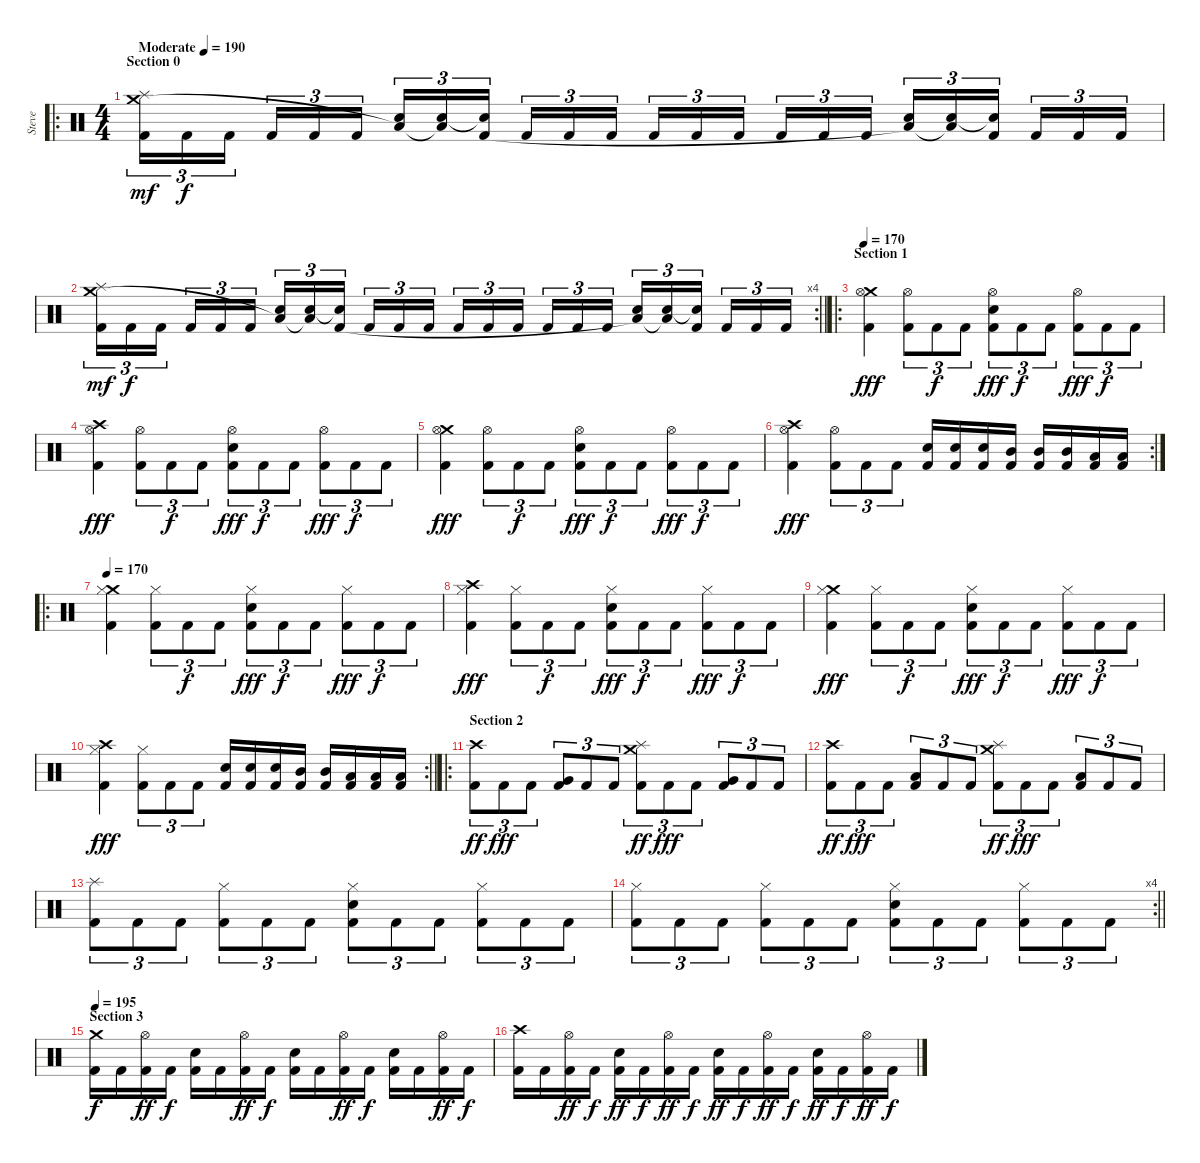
\track ("Steve" "Steve") {instrument percussion}
\staff {score}
\articulation defaults
\ro
\ts (4 4)
\section ("" "Section 0")
\tempo (190 "Moderate")
\tempo 120
\tempo (190 "Moderate")
\clef neutral
\ks c
("Splash (hit)" "Crash medium (hit)" "Kick (hit) 2").16{tu (3 2) dy mf} "Kick (hit) 2".16{tu (3 2) dy f} "Kick (hit) 2".16{tu (3 2) beam splitsecondary} "Kick (hit) 2".16{tu (3 2)} "Kick (hit) 2".16{tu (3 2)} "Kick (hit) 2".16{tu (3 2)} ("Snare (hit) 2" "Low Floor Tom (hit)"{t}).16{tu (3 2)} ("Snare (hit) 2" "Low Floor Tom (hit)"{t}).16{tu (3 2)} ("Snare (hit) 2"{t} "Kick (hit) 2").16{tu (3 2) beam splitsecondary} "Kick (hit) 2".16{tu (3 2)} "Kick (hit) 2".16{tu (3 2)} "Kick (hit) 2".16{tu (3 2)} "Kick (hit) 2".16{tu (3 2)} "Kick (hit) 2".16{tu (3 2)} "Kick (hit) 2".16{tu (3 2) beam splitsecondary} "Kick (hit) 2".16{tu (3 2)} "Kick (hit) 2".16{tu (3 2)} "Kick (hit) 2".16{tu (3 2)} ("Snare (hit) 2" "Low Floor Tom (hit)"{t}).16{tu (3 2)} ("Snare (hit) 2" "Low Floor Tom (hit)"{t}).16{tu (3 2)} ("Snare (hit) 2"{t} "Kick (hit) 2").16{tu (3 2) beam splitsecondary} "Kick (hit) 2".16{tu (3 2)} "Kick (hit) 2".16{tu (3 2)} "Kick (hit) 2".16{tu (3 2)} |
\rc 4
\barLineRight lightlight
("Splash (hit)" "Crash medium (hit)" "Kick (hit) 2").16{tu (3 2) dy mf} "Kick (hit) 2".16{tu (3 2) dy f} "Kick (hit) 2".16{tu (3 2) beam splitsecondary} "Kick (hit) 2".16{tu (3 2)} "Kick (hit) 2".16{tu (3 2)} "Kick (hit) 2".16{tu (3 2)} ("Snare (hit) 2" "Low Floor Tom (hit)"{t}).16{tu (3 2)} ("Snare (hit) 2" "Low Floor Tom (hit)"{t}).16{tu (3 2)} ("Snare (hit) 2"{t} "Kick (hit) 2").16{tu (3 2) beam splitsecondary} "Kick (hit) 2".16{tu (3 2)} "Kick (hit) 2".16{tu (3 2)} "Kick (hit) 2".16{tu (3 2)} "Kick (hit) 2".16{tu (3 2)} "Kick (hit) 2".16{tu (3 2)} "Kick (hit) 2".16{tu (3 2) beam splitsecondary} "Kick (hit) 2".16{tu (3 2)} "Kick (hit) 2".16{tu (3 2)} "Kick (hit) 2".16{tu (3 2)} ("Snare (hit) 2" "Low Floor Tom (hit)"{t}).16{tu (3 2)} ("Snare (hit) 2" "Low Floor Tom (hit)"{t}).16{tu (3 2)} ("Snare (hit) 2"{t} "Kick (hit) 2").16{tu (3 2) beam splitsecondary} "Kick (hit) 2".16{tu (3 2)} "Kick (hit) 2".16{tu (3 2)} "Kick (hit) 2".16{tu (3 2)} |
\ro
\section ("" "Section 1")
\tempo 170
("Crash medium (hit)" "Hi-Hat (open)" "Kick (hit) 2").4{dy fff} ("Hi-Hat (open)" "Kick (hit) 2").8{tu (3 2)} "Kick (hit) 2".8{tu (3 2) dy f} "Kick (hit) 2".8{tu (3 2)} ("Snare (hit) 2" "Hi-Hat (open)" "Kick (hit) 2").8{tu (3 2) dy fff} "Kick (hit) 2".8{tu (3 2) dy f} "Kick (hit) 2".8{tu (3 2)} ("Hi-Hat (open)" "Kick (hit) 2").8{tu (3 2) dy fff} "Kick (hit) 2".8{tu (3 2) dy f} "Kick (hit) 2".8{tu (3 2)} |
("Crash high (hit)" "Hi-Hat (open)" "Kick (hit) 2").4{dy fff} ("Hi-Hat (open)" "Kick (hit) 2").8{tu (3 2)} "Kick (hit) 2".8{tu (3 2) dy f} "Kick (hit) 2".8{tu (3 2)} ("Snare (hit) 2" "Hi-Hat (open)" "Kick (hit) 2").8{tu (3 2) dy fff} "Kick (hit) 2".8{tu (3 2) dy f} "Kick (hit) 2".8{tu (3 2)} ("Hi-Hat (open)" "Kick (hit) 2").8{tu (3 2) dy fff} "Kick (hit) 2".8{tu (3 2) dy f} "Kick (hit) 2".8{tu (3 2)} |
("Crash medium (hit)" "Hi-Hat (open)" "Kick (hit) 2").4{dy fff} ("Hi-Hat (open)" "Kick (hit) 2").8{tu (3 2)} "Kick (hit) 2".8{tu (3 2) dy f} "Kick (hit) 2".8{tu (3 2)} ("Snare (hit) 2" "Hi-Hat (open)" "Kick (hit) 2").8{tu (3 2) dy fff} "Kick (hit) 2".8{tu (3 2) dy f} "Kick (hit) 2".8{tu (3 2)} ("Hi-Hat (open)" "Kick (hit) 2").8{tu (3 2) dy fff} "Kick (hit) 2".8{tu (3 2) dy f} "Kick (hit) 2".8{tu (3 2)} |
\rc 2
("Crash high (hit)" "Hi-Hat (open)" "Kick (hit) 2").4{dy fff} ("Hi-Hat (open)" "Kick (hit) 2").8{tu (3 2)} "Kick (hit) 2".8{tu (3 2)} "Kick (hit) 2".8{tu (3 2)} ("Snare (hit) 2" "Kick (hit) 2").16 ("Snare (hit) 2" "Kick (hit) 2").16 ("Snare (hit) 2" "Kick (hit) 2").16 ("Mid Tom (hit)" "Kick (hit) 2").16 ("Mid Tom (hit)" "Kick (hit) 2").16 ("Mid Tom (hit)" "Kick (hit) 2").16 ("Low Tom (hit)" "Kick (hit) 2").16 ("Low Tom (hit)" "Kick (hit) 2").16 |
\ro
\tempo 170
("Crash medium (hit)" "Hi-Hat (closed)" "Kick (hit) 2").4 ("Hi-Hat (closed)" "Kick (hit) 2").8{tu (3 2)} "Kick (hit) 2".8{tu (3 2) dy f} "Kick (hit) 2".8{tu (3 2)} ("Snare (hit) 2" "Hi-Hat (closed)" "Kick (hit) 2").8{tu (3 2) dy fff} "Kick (hit) 2".8{tu (3 2) dy f} "Kick (hit) 2".8{tu (3 2)} ("Hi-Hat (closed)" "Kick (hit) 2").8{tu (3 2) dy fff} "Kick (hit) 2".8{tu (3 2) dy f} "Kick (hit) 2".8{tu (3 2)} |
("Crash high (hit)" "Hi-Hat (closed)" "Kick (hit) 2").4{dy fff} ("Hi-Hat (closed)" "Kick (hit) 2").8{tu (3 2)} "Kick (hit) 2".8{tu (3 2) dy f} "Kick (hit) 2".8{tu (3 2)} ("Snare (hit) 2" "Hi-Hat (closed)" "Kick (hit) 2").8{tu (3 2) dy fff} "Kick (hit) 2".8{tu (3 2) dy f} "Kick (hit) 2".8{tu (3 2)} ("Hi-Hat (closed)" "Kick (hit) 2").8{tu (3 2) dy fff} "Kick (hit) 2".8{tu (3 2) dy f} "Kick (hit) 2".8{tu (3 2)} |
("Crash medium (hit)" "Hi-Hat (closed)" "Kick (hit) 2").4{dy fff} ("Hi-Hat (closed)" "Kick (hit) 2").8{tu (3 2)} "Kick (hit) 2".8{tu (3 2) dy f} "Kick (hit) 2".8{tu (3 2)} ("Snare (hit) 2" "Hi-Hat (closed)" "Kick (hit) 2").8{tu (3 2) dy fff} "Kick (hit) 2".8{tu (3 2) dy f} "Kick (hit) 2".8{tu (3 2)} ("Hi-Hat (closed)" "Kick (hit) 2").8{tu (3 2) dy fff} "Kick (hit) 2".8{tu (3 2) dy f} "Kick (hit) 2".8{tu (3 2)} |
\rc 2
\barLineRight lightlight
("Crash high (hit)" "Hi-Hat (closed)" "Kick (hit) 2").4{dy fff} ("Hi-Hat (closed)" "Kick (hit) 2").8{tu (3 2)} "Kick (hit) 2".8{tu (3 2)} "Kick (hit) 2".8{tu (3 2)} ("Snare (hit) 2" "Kick (hit) 2").16 ("Snare (hit) 2" "Kick (hit) 2").16 ("Snare (hit) 2" "Kick (hit) 2").16 ("Mid Tom (hit)" "Kick (hit) 2").16 ("Mid Tom (hit)" "Kick (hit) 2").16 ("Low Tom (hit)" "Kick (hit) 2").16 ("Low Tom (hit)" "Kick (hit) 2").16 ("Low Tom (hit)" "Kick (hit) 2").16 |
\ro
\section ("" "Section 2")
("Crash high (hit)" "Kick (hit) 2").8{tu (3 2) dy ff} "Kick (hit) 2".8{tu (3 2) dy fff} "Kick (hit) 2".8{tu (3 2)} ("Very Low Tom (hit)" "Kick (hit) 2").8{tu (3 2)} "Kick (hit) 2".8{tu (3 2)} "Kick (hit) 2".8{tu (3 2)} ("Crash medium (hit)" "Splash (hit)" "Kick (hit) 2").8{tu (3 2) dy ff} "Kick (hit) 2".8{tu (3 2) dy fff} "Kick (hit) 2".8{tu (3 2)} ("Very Low Tom (hit)" "Kick (hit) 2").8{tu (3 2)} "Kick (hit) 2".8{tu (3 2)} "Kick (hit) 2".8{tu (3 2)} |
("Crash high (hit)" "Kick (hit) 2").8{tu (3 2) dy ff} "Kick (hit) 2".8{tu (3 2) dy fff} "Kick (hit) 2".8{tu (3 2)} ("Low Tom (hit)" "Kick (hit) 2").8{tu (3 2)} "Kick (hit) 2".8{tu (3 2)} "Kick (hit) 2".8{tu (3 2)} ("Crash medium (hit)" "Splash (hit)" "Kick (hit) 2").8{tu (3 2) dy ff} "Kick (hit) 2".8{tu (3 2) dy fff} "Kick (hit) 2".8{tu (3 2)} ("Low Tom (hit)" "Kick (hit) 2").8{tu (3 2)} "Kick (hit) 2".8{tu (3 2)} "Kick (hit) 2".8{tu (3 2)} |
("Splash (hit)" "Kick (hit) 2").8{tu (3 2)} "Kick (hit) 2".8{tu (3 2)} "Kick (hit) 2".8{tu (3 2)} ("Hi-Hat (closed)" "Kick (hit) 2").8{tu (3 2)} "Kick (hit) 2".8{tu (3 2)} "Kick (hit) 2".8{tu (3 2)} ("Snare (hit) 2" "Hi-Hat (closed)" "Kick (hit) 2").8{tu (3 2)} "Kick (hit) 2".8{tu (3 2)} "Kick (hit) 2".8{tu (3 2)} ("Hi-Hat (closed)" "Kick (hit) 2").8{tu (3 2)} "Kick (hit) 2".8{tu (3 2)} "Kick (hit) 2".8{tu (3 2)} |
\rc 4
\barLineRight lightlight
("Hi-Hat (closed)" "Kick (hit) 2").8{tu (3 2)} "Kick (hit) 2".8{tu (3 2)} "Kick (hit) 2".8{tu (3 2)} ("Hi-Hat (closed)" "Kick (hit) 2").8{tu (3 2)} "Kick (hit) 2".8{tu (3 2)} "Kick (hit) 2".8{tu (3 2)} ("Snare (hit) 2" "Hi-Hat (closed)" "Kick (hit) 2").8{tu (3 2)} "Kick (hit) 2".8{tu (3 2)} "Kick (hit) 2".8{tu (3 2)} ("Hi-Hat (closed)" "Kick (hit) 2").8{tu (3 2)} "Kick (hit) 2".8{tu (3 2)} "Kick (hit) 2".8{tu (3 2)} |
\section ("" "Section 3")
\tempo 195
("Crash medium (hit)" "Kick (hit) 2").16{dy f} "Kick (hit) 2".16 ("Hi-Hat (open)" "Kick (hit) 2").16{dy ff} "Kick (hit) 2".16{dy f} ("Snare (hit) 2" "Kick (hit) 2").16 "Kick (hit) 2".16 ("Hi-Hat (open)" "Kick (hit) 2").16{dy ff} "Kick (hit) 2".16{dy f} ("Snare (hit) 2" "Kick (hit) 2").16 "Kick (hit) 2".16 ("Hi-Hat (open)" "Kick (hit) 2").16{dy ff} "Kick (hit) 2".16{dy f} ("Snare (hit) 2" "Kick (hit) 2").16 "Kick (hit) 2".16 ("Hi-Hat (open)" "Kick (hit) 2").16{dy ff} "Kick (hit) 2".16{dy f} |
("Crash high (hit)" "Kick (hit) 2").16 "Kick (hit) 2".16 ("Hi-Hat (open)" "Kick (hit) 2").16{dy ff} "Kick (hit) 2".16{dy f} ("Snare (hit) 2" "Kick (hit) 2").16{dy ff} "Kick (hit) 2".16{dy f} ("Hi-Hat (open)" "Kick (hit) 2").16{dy ff} "Kick (hit) 2".16{dy f} ("Snare (hit) 2" "Kick (hit) 2").16{dy ff} "Kick (hit) 2".16{dy f} ("Hi-Hat (open)" "Kick (hit) 2").16{dy ff} "Kick (hit) 2".16{dy f} ("Snare (hit) 2" "Kick (hit) 2").16{dy ff} "Kick (hit) 2".16{dy f} ("Hi-Hat (open)" "Kick (hit) 2").16{dy ff} "Kick (hit) 2".16{dy f}
